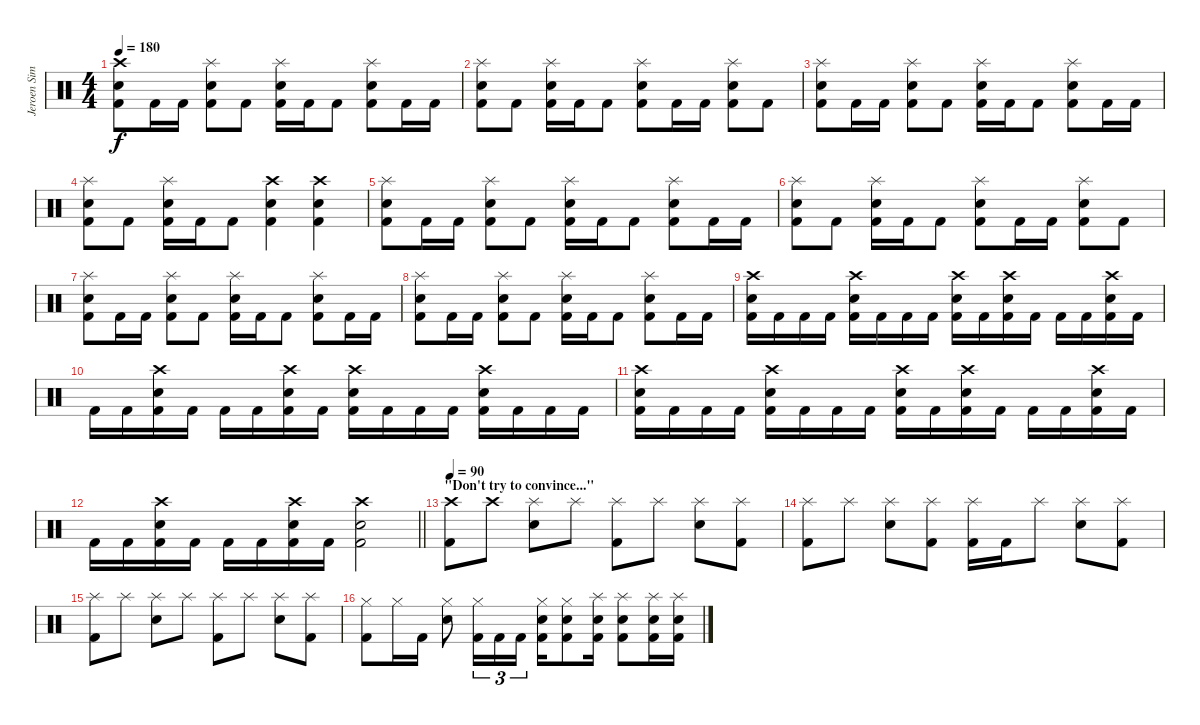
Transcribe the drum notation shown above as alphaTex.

\track ("Jeroen Simons" "Jeroen Sim") {instrument percussion}
\staff {score}
\articulation defaults
\ts (4 4)
\tempo 180
\clef neutral
\ks c
("Kick (hit) 2" "Snare (hit) 2" "Crash high (hit)").8{dy f} "Kick (hit) 2".16 "Kick (hit) 2".16 ("Kick (hit) 2" "Snare (hit) 2" "Splash (hit)").8 "Kick (hit) 2".8 ("Kick (hit) 2" "Snare (hit) 2" "Splash (hit)").16 "Kick (hit) 2".16 "Kick (hit) 2".8 ("Kick (hit) 2" "Snare (hit) 2" "Splash (hit)").8 "Kick (hit) 2".16 "Kick (hit) 2".16 |
("Kick (hit) 2" "Snare (hit) 2" "Splash (hit)").8 "Kick (hit) 2".8 ("Kick (hit) 2" "Snare (hit) 2" "Splash (hit)").16 "Kick (hit) 2".16 "Kick (hit) 2".8 ("Kick (hit) 2" "Snare (hit) 2" "Splash (hit)").8 "Kick (hit) 2".16 "Kick (hit) 2".16 ("Kick (hit) 2" "Snare (hit) 2" "Splash (hit)").8 "Kick (hit) 2".8 |
("Kick (hit) 2" "Snare (hit) 2" "Splash (hit)").8 "Kick (hit) 2".16 "Kick (hit) 2".16 ("Kick (hit) 2" "Snare (hit) 2" "Splash (hit)").8 "Kick (hit) 2".8 ("Kick (hit) 2" "Snare (hit) 2" "Splash (hit)").16 "Kick (hit) 2".16 "Kick (hit) 2".8 ("Kick (hit) 2" "Snare (hit) 2" "Splash (hit)").8 "Kick (hit) 2".16 "Kick (hit) 2".16 |
("Kick (hit) 2" "Snare (hit) 2" "Splash (hit)").8 "Kick (hit) 2".8 ("Kick (hit) 2" "Snare (hit) 2" "Splash (hit)").16 "Kick (hit) 2".16 "Kick (hit) 2".8 ("Kick (hit) 2" "Snare (hit) 2" "Crash high (hit)").4 ("Kick (hit) 2" "Snare (hit) 2" "Crash high (hit)").4 |
("Kick (hit) 2" "Snare (hit) 2" "Splash (hit)").8 "Kick (hit) 2".16 "Kick (hit) 2".16 ("Kick (hit) 2" "Snare (hit) 2" "Splash (hit)").8 "Kick (hit) 2".8 ("Kick (hit) 2" "Snare (hit) 2" "Splash (hit)").16 "Kick (hit) 2".16 "Kick (hit) 2".8 ("Kick (hit) 2" "Snare (hit) 2" "Splash (hit)").8 "Kick (hit) 2".16 "Kick (hit) 2".16 |
("Kick (hit) 2" "Snare (hit) 2" "Splash (hit)").8 "Kick (hit) 2".8 ("Kick (hit) 2" "Snare (hit) 2" "Splash (hit)").16 "Kick (hit) 2".16 "Kick (hit) 2".8 ("Kick (hit) 2" "Snare (hit) 2" "Splash (hit)").8 "Kick (hit) 2".16 "Kick (hit) 2".16 ("Kick (hit) 2" "Snare (hit) 2" "Splash (hit)").8 "Kick (hit) 2".8 |
("Kick (hit) 2" "Snare (hit) 2" "Splash (hit)").8 "Kick (hit) 2".16 "Kick (hit) 2".16 ("Kick (hit) 2" "Snare (hit) 2" "Splash (hit)").8 "Kick (hit) 2".8 ("Kick (hit) 2" "Snare (hit) 2" "Splash (hit)").16 "Kick (hit) 2".16 "Kick (hit) 2".8 ("Kick (hit) 2" "Snare (hit) 2" "Splash (hit)").8 "Kick (hit) 2".16 "Kick (hit) 2".16 |
("Kick (hit) 2" "Snare (hit) 2" "Splash (hit)").8 "Kick (hit) 2".16 "Kick (hit) 2".16 ("Kick (hit) 2" "Snare (hit) 2" "Splash (hit)").8 "Kick (hit) 2".8 ("Kick (hit) 2" "Snare (hit) 2" "Splash (hit)").16 "Kick (hit) 2".16 "Kick (hit) 2".8 ("Kick (hit) 2" "Snare (hit) 2" "Splash (hit)").8 "Kick (hit) 2".16 "Kick (hit) 2".16 |
("Kick (hit) 2" "Snare (hit) 2" "Crash high (hit)").16 "Kick (hit) 2".16 "Kick (hit) 2".16 "Kick (hit) 2".16 ("Kick (hit) 2" "Snare (hit) 2" "Crash high (hit)").16 "Kick (hit) 2".16 "Kick (hit) 2".16 "Kick (hit) 2".16 ("Kick (hit) 2" "Snare (hit) 2" "Crash high (hit)").16 "Kick (hit) 2".16 ("Kick (hit) 2" "Snare (hit) 2" "Crash high (hit)").16 "Kick (hit) 2".16 "Kick (hit) 2".16 "Kick (hit) 2".16 ("Kick (hit) 2" "Snare (hit) 2" "Crash high (hit)").16 "Kick (hit) 2".16 |
"Kick (hit) 2".16 "Kick (hit) 2".16 ("Kick (hit) 2" "Snare (hit) 2" "Crash high (hit)").16 "Kick (hit) 2".16 "Kick (hit) 2".16 "Kick (hit) 2".16 ("Kick (hit) 2" "Snare (hit) 2" "Crash high (hit)").16 "Kick (hit) 2".16 ("Kick (hit) 2" "Snare (hit) 2" "Crash high (hit)").16 "Kick (hit) 2".16 "Kick (hit) 2".16 "Kick (hit) 2".16 ("Kick (hit) 2" "Snare (hit) 2" "Crash high (hit)").16 "Kick (hit) 2".16 "Kick (hit) 2".16 "Kick (hit) 2".16 |
("Kick (hit) 2" "Snare (hit) 2" "Crash high (hit)").16 "Kick (hit) 2".16 "Kick (hit) 2".16 "Kick (hit) 2".16 ("Kick (hit) 2" "Snare (hit) 2" "Crash high (hit)").16 "Kick (hit) 2".16 "Kick (hit) 2".16 "Kick (hit) 2".16 ("Kick (hit) 2" "Snare (hit) 2" "Crash high (hit)").16 "Kick (hit) 2".16 ("Kick (hit) 2" "Snare (hit) 2" "Crash high (hit)").16 "Kick (hit) 2".16 "Kick (hit) 2".16 "Kick (hit) 2".16 ("Kick (hit) 2" "Snare (hit) 2" "Crash high (hit)").16 "Kick (hit) 2".16 |
\barLineRight lightlight "Kick (hit) 2".16 "Kick (hit) 2".16
("Kick (hit) 2" "Snare (hit) 2" "Crash high (hit)").16 "Kick (hit) 2".16 "Kick (hit) 2".16 "Kick (hit) 2".16 ("Kick (hit) 2" "Snare (hit) 2" "Crash high (hit)").16 "Kick (hit) 2".16 ("Kick (hit) 2" "Snare (hit) 2" "Crash high (hit)").2 |
\section ("" "\"Don't try to convince...\"")
\tempo 90
("Kick (hit) 2" "Crash high (hit)").8 "Crash high (hit)".8 ("Snare (hit) 2" "Splash (hit)").8 "Splash (hit)".8 ("Kick (hit) 2" "Splash (hit)").8 "Splash (hit)".8 ("Snare (hit) 2" "Splash (hit)").8 ("Kick (hit) 2" "Splash (hit)").8 |
("Kick (hit) 2" "Splash (hit)").8 "Splash (hit)".8 ("Snare (hit) 2" "Splash (hit)").8 ("Kick (hit) 2" "Splash (hit)").8 ("Kick (hit) 2" "Splash (hit)").16 "Kick (hit) 2".16 "Splash (hit)".8 ("Snare (hit) 2" "Splash (hit)").8 ("Kick (hit) 2" "Splash (hit)").8 |
("Kick (hit) 2" "Splash (hit)").8 "Splash (hit)".8 ("Snare (hit) 2" "Splash (hit)").8 "Splash (hit)".8 ("Kick (hit) 2" "Splash (hit)").8 "Splash (hit)".8 ("Snare (hit) 2" "Splash (hit)").8 ("Kick (hit) 2" "Splash (hit)").8 |
("Kick (hit) 2" "Hi-Hat (closed)").8 "Hi-Hat (closed)".16 "Kick (hit) 2".16 ("Snare (hit) 2" "Hi-Hat (closed)").8 ("Kick (hit) 2" "Hi-Hat (closed)").16{tu (3 2)} "Kick (hit) 2".16{tu (3 2)} "Kick (hit) 2".16{tu (3 2)} ("Kick (hit) 2" "Snare (hit) 2" "Hi-Hat (closed)").16 ("Kick (hit) 2" "Snare (hit) 2" "Hi-Hat (closed)").8 ("Kick (hit) 2" "Snare (hit) 2" "Splash (hit)").16 ("Kick (hit) 2" "Snare (hit) 2" "Splash (hit)").8 ("Kick (hit) 2" "Snare (hit) 2" "Splash (hit)").16 ("Kick (hit) 2" "Snare (hit) 2" "Splash (hit)").16
